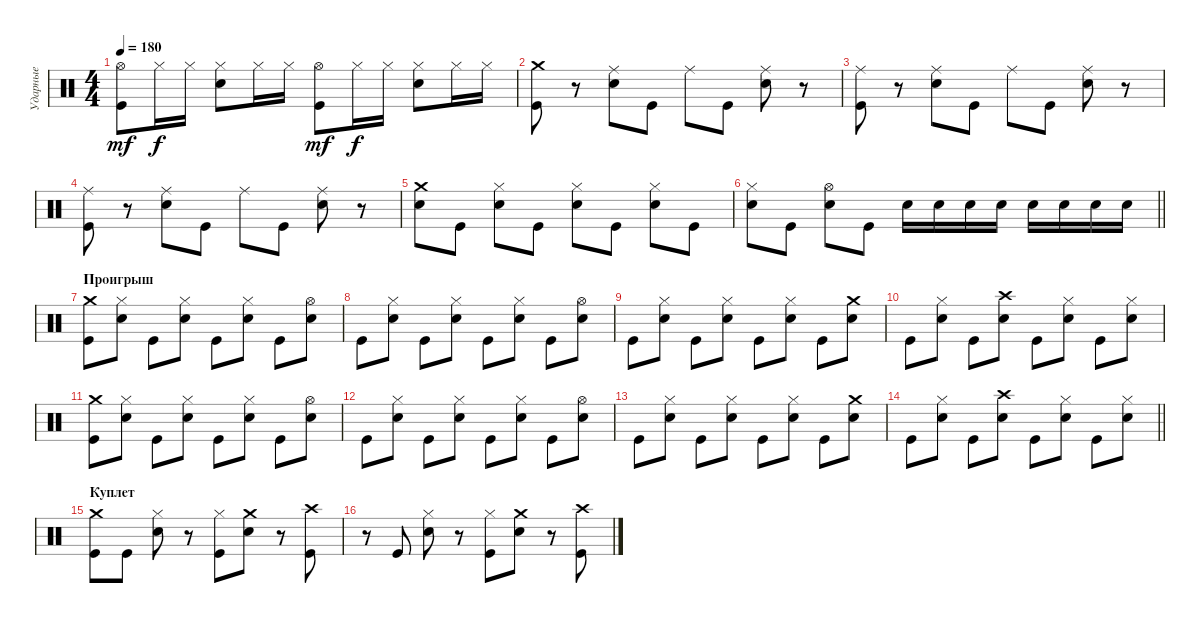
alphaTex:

\track ("Ударные" "Ударные") {instrument percussion}
\staff {score}
\articulation defaults
\ts (4 4)
\tempo 180
\clef neutral
\ks c
("Hi-Hat (open)" "Kick (hit)").8{dy mf} "Hi-Hat (closed)".16{dy f} "Hi-Hat (closed)".16 ("Hi-Hat (closed)" "Electric Snare (hit)").8 "Hi-Hat (closed)".16 "Hi-Hat (closed)".16 ("Hi-Hat (open)" "Kick (hit)").8{dy mf} "Hi-Hat (closed)".16{dy f} "Hi-Hat (closed)".16 ("Hi-Hat (closed)" "Electric Snare (hit)").8 "Hi-Hat (closed)".16 "Hi-Hat (closed)".16 |
("Crash medium (hit)" "Kick (hit)").8 r.8 ("Ride (middle)" "Electric Snare (hit)").8 "Kick (hit)".8 "Ride (middle)".8 "Kick (hit)".8 ("Ride (middle)" "Electric Snare (hit)").8 r.8 |
("Ride (middle)" "Kick (hit)").8 r.8 ("Ride (middle)" "Electric Snare (hit)").8 "Kick (hit)".8 "Ride (middle)".8 "Kick (hit)".8 ("Ride (middle)" "Electric Snare (hit)").8 r.8 |
("Ride (middle)" "Kick (hit)").8 r.8 ("Ride (middle)" "Electric Snare (hit)").8 "Kick (hit)".8 "Ride (middle)".8 "Kick (hit)".8 ("Ride (middle)" "Electric Snare (hit)").8 r.8 |
("Crash medium (hit)" "Electric Snare (hit)").8 "Kick (hit)".8 ("Hi-Hat (closed)" "Electric Snare (hit)").8 "Kick (hit)".8 ("Hi-Hat (closed)" "Electric Snare (hit)").8 "Kick (hit)".8 ("Hi-Hat (closed)" "Electric Snare (hit)").8 "Kick (hit)".8 |
\barLineRight lightlight
("Hi-Hat (closed)" "Electric Snare (hit)").8 "Kick (hit)".8 ("Hi-Hat (open)" "Electric Snare (hit)").8 "Kick (hit)".8 "Electric Snare (hit)".16 "Electric Snare (hit)".16 "Electric Snare (hit)".16 "Electric Snare (hit)".16 "Electric Snare (hit)".16 "Electric Snare (hit)".16 "Electric Snare (hit)".16 "Electric Snare (hit)".16 |
\section ("" "Проигрыш")
("Crash medium (hit)" "Kick (hit)").8 ("Hi-Hat (closed)" "Electric Snare (hit)").8 "Kick (hit)".8 ("Hi-Hat (closed)" "Electric Snare (hit)").8 "Kick (hit)".8 ("Hi-Hat (closed)" "Electric Snare (hit)").8 "Kick (hit)".8 ("Hi-Hat (open)" "Electric Snare (hit)").8 |
"Kick (hit)".8 ("Hi-Hat (closed)" "Electric Snare (hit)").8 "Kick (hit)".8 ("Hi-Hat (closed)" "Electric Snare (hit)").8 "Kick (hit)".8 ("Hi-Hat (closed)" "Electric Snare (hit)").8 "Kick (hit)".8 ("Hi-Hat (open)" "Electric Snare (hit)").8 |
"Kick (hit)".8 ("Hi-Hat (closed)" "Electric Snare (hit)").8 "Kick (hit)".8 ("Hi-Hat (closed)" "Electric Snare (hit)").8 "Kick (hit)".8 ("Hi-Hat (closed)" "Electric Snare (hit)").8 "Kick (hit)".8 ("Crash medium (hit)" "Electric Snare (hit)").8 |
"Kick (hit)".8 ("Hi-Hat (closed)" "Electric Snare (hit)").8 "Kick (hit)".8 ("Crash high (hit)" "Electric Snare (hit)").8 "Kick (hit)".8 ("Hi-Hat (closed)" "Electric Snare (hit)").8 "Kick (hit)".8 ("Hi-Hat (closed)" "Electric Snare (hit)").8 |
("Crash medium (hit)" "Kick (hit)").8 ("Hi-Hat (closed)" "Electric Snare (hit)").8 "Kick (hit)".8 ("Hi-Hat (closed)" "Electric Snare (hit)").8 "Kick (hit)".8 ("Hi-Hat (closed)" "Electric Snare (hit)").8 "Kick (hit)".8 ("Hi-Hat (open)" "Electric Snare (hit)").8 |
"Kick (hit)".8 ("Hi-Hat (closed)" "Electric Snare (hit)").8 "Kick (hit)".8 ("Hi-Hat (closed)" "Electric Snare (hit)").8 "Kick (hit)".8 ("Hi-Hat (closed)" "Electric Snare (hit)").8 "Kick (hit)".8 ("Hi-Hat (open)" "Electric Snare (hit)").8 |
"Kick (hit)".8 ("Hi-Hat (closed)" "Electric Snare (hit)").8 "Kick (hit)".8 ("Hi-Hat (closed)" "Electric Snare (hit)").8 "Kick (hit)".8 ("Hi-Hat (closed)" "Electric Snare (hit)").8 "Kick (hit)".8 ("Crash medium (hit)" "Electric Snare (hit)").8 |
\barLineRight lightlight "Kick (hit)".8
("Hi-Hat (closed)" "Electric Snare (hit)").8 "Kick (hit)".8 ("Crash high (hit)" "Electric Snare (hit)").8 "Kick (hit)".8 ("Hi-Hat (closed)" "Electric Snare (hit)").8 "Kick (hit)".8 ("Hi-Hat (closed)" "Electric Snare (hit)").8 |
\section ("" "Куплет")
("Crash medium (hit)" "Kick (hit)").8 "Kick (hit)".8 ("Hi-Hat (closed)" "Electric Snare (hit)").8 r.8 ("Hi-Hat (closed)" "Kick (hit)").8 ("Crash medium (hit)" "Electric Snare (hit)").8 r.8 ("Crash high (hit)" "Kick (hit)").8 |
r.8 "Kick (hit)".8 ("Hi-Hat (closed)" "Electric Snare (hit)").8 r.8 ("Hi-Hat (closed)" "Kick (hit)").8 ("Crash medium (hit)" "Electric Snare (hit)").8 r.8 ("Crash high (hit)" "Kick (hit)").8
